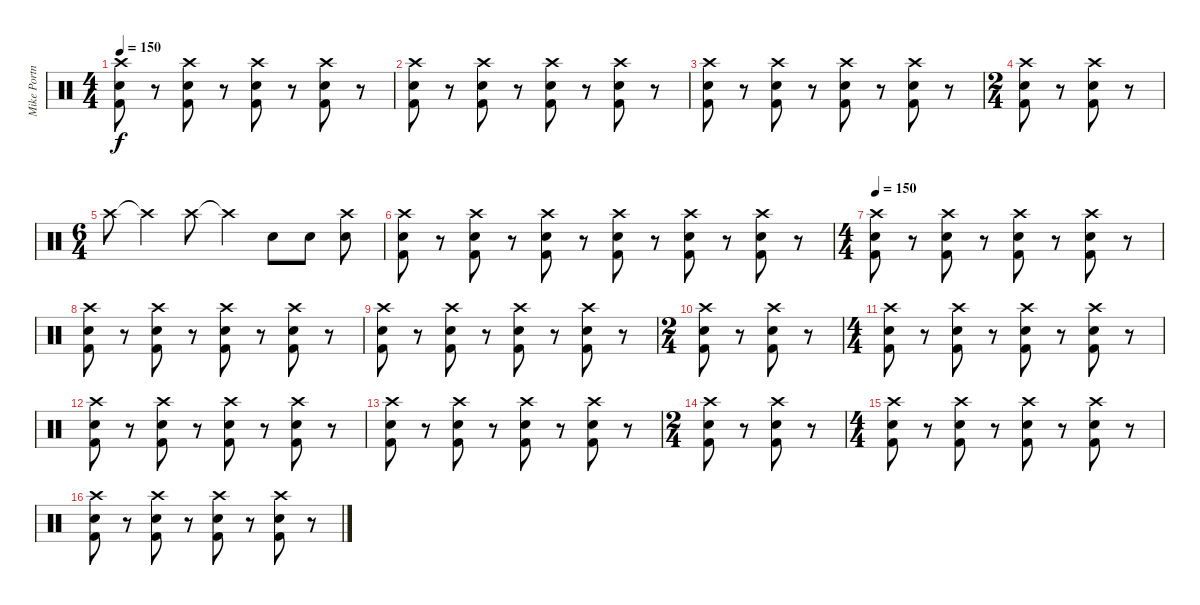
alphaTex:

\track ("Mike Portnoy" "Mike Portn") {instrument percussion}
\staff {score}
\articulation defaults
\ts (4 4)
\tempo 150
\clef neutral
\ks c
("Crash high (hit)" "Electric Snare (hit)" "Kick (hit) 2").8{dy f} r.8 ("Crash high (hit)" "Electric Snare (hit)" "Kick (hit) 2").8 r.8 ("Crash high (hit)" "Electric Snare (hit)" "Kick (hit) 2").8 r.8 ("Crash high (hit)" "Electric Snare (hit)" "Kick (hit) 2").8 r.8 |
("Crash high (hit)" "Electric Snare (hit)" "Kick (hit) 2").8 r.8 ("Crash high (hit)" "Electric Snare (hit)" "Kick (hit) 2").8 r.8 ("Crash high (hit)" "Electric Snare (hit)" "Kick (hit) 2").8 r.8 ("Crash high (hit)" "Electric Snare (hit)" "Kick (hit) 2").8 r.8 |
("Crash high (hit)" "Electric Snare (hit)" "Kick (hit) 2").8 r.8 ("Crash high (hit)" "Electric Snare (hit)" "Kick (hit) 2").8 r.8 ("Crash high (hit)" "Electric Snare (hit)" "Kick (hit) 2").8 r.8 ("Crash high (hit)" "Electric Snare (hit)" "Kick (hit) 2").8 r.8 |
\ts (2 4)
("Crash high (hit)" "Electric Snare (hit)" "Kick (hit) 2").8 r.8 ("Crash high (hit)" "Electric Snare (hit)" "Kick (hit) 2").8 r.8 |
\ts (6 4)
"Crash high (hit)".8 "Crash high (hit)"{t}.4 "Crash high (hit)".8 "Crash high (hit)"{t}.4 "Electric Snare (hit)".8 "Electric Snare (hit)".8 ("Crash high (hit)" "Electric Snare (hit)").8 |
("Crash high (hit)" "Electric Snare (hit)" "Kick (hit) 2").8 r.8 ("Crash high (hit)" "Electric Snare (hit)" "Kick (hit) 2").8 r.8 ("Crash high (hit)" "Electric Snare (hit)" "Kick (hit) 2").8 r.8 ("Crash high (hit)" "Electric Snare (hit)" "Kick (hit) 2").8 r.8 ("Crash high (hit)" "Electric Snare (hit)" "Kick (hit) 2").8 r.8 ("Crash high (hit)" "Electric Snare (hit)" "Kick (hit) 2").8 r.8 |
\ts (4 4)
\tempo 150
("Crash high (hit)" "Electric Snare (hit)" "Kick (hit) 2").8 r.8 ("Crash high (hit)" "Electric Snare (hit)" "Kick (hit) 2").8 r.8 ("Crash high (hit)" "Electric Snare (hit)" "Kick (hit) 2").8 r.8 ("Crash high (hit)" "Electric Snare (hit)" "Kick (hit) 2").8 r.8 |
("Crash high (hit)" "Electric Snare (hit)" "Kick (hit) 2").8 r.8 ("Crash high (hit)" "Electric Snare (hit)" "Kick (hit) 2").8 r.8 ("Crash high (hit)" "Electric Snare (hit)" "Kick (hit) 2").8 r.8 ("Crash high (hit)" "Electric Snare (hit)" "Kick (hit) 2").8 r.8 |
("Crash high (hit)" "Electric Snare (hit)" "Kick (hit) 2").8 r.8 ("Crash high (hit)" "Electric Snare (hit)" "Kick (hit) 2").8 r.8 ("Crash high (hit)" "Electric Snare (hit)" "Kick (hit) 2").8 r.8 ("Crash high (hit)" "Electric Snare (hit)" "Kick (hit) 2").8 r.8 |
\ts (2 4)
("Crash high (hit)" "Electric Snare (hit)" "Kick (hit) 2").8 r.8 ("Crash high (hit)" "Electric Snare (hit)" "Kick (hit) 2").8 r.8 |
\ts (4 4)
("Crash high (hit)" "Electric Snare (hit)" "Kick (hit) 2").8 r.8 ("Crash high (hit)" "Electric Snare (hit)" "Kick (hit) 2").8 r.8 ("Crash high (hit)" "Electric Snare (hit)" "Kick (hit) 2").8 r.8 ("Crash high (hit)" "Electric Snare (hit)" "Kick (hit) 2").8 r.8 |
("Crash high (hit)" "Electric Snare (hit)" "Kick (hit) 2").8 r.8 ("Crash high (hit)" "Electric Snare (hit)" "Kick (hit) 2").8 r.8 ("Crash high (hit)" "Electric Snare (hit)" "Kick (hit) 2").8 r.8 ("Crash high (hit)" "Electric Snare (hit)" "Kick (hit) 2").8 r.8 |
("Crash high (hit)" "Electric Snare (hit)" "Kick (hit) 2").8 r.8 ("Crash high (hit)" "Electric Snare (hit)" "Kick (hit) 2").8 r.8 ("Crash high (hit)" "Electric Snare (hit)" "Kick (hit) 2").8 r.8 ("Crash high (hit)" "Electric Snare (hit)" "Kick (hit) 2").8 r.8 |
\ts (2 4)
("Crash high (hit)" "Electric Snare (hit)" "Kick (hit) 2").8 r.8 ("Crash high (hit)" "Electric Snare (hit)" "Kick (hit) 2").8 r.8 |
\ts (4 4)
("Crash high (hit)" "Electric Snare (hit)" "Kick (hit) 2").8 r.8 ("Crash high (hit)" "Electric Snare (hit)" "Kick (hit) 2").8 r.8 ("Crash high (hit)" "Electric Snare (hit)" "Kick (hit) 2").8 r.8 ("Crash high (hit)" "Electric Snare (hit)" "Kick (hit) 2").8 r.8 |
("Crash high (hit)" "Electric Snare (hit)" "Kick (hit) 2").8 r.8 ("Crash high (hit)" "Electric Snare (hit)" "Kick (hit) 2").8 r.8 ("Crash high (hit)" "Electric Snare (hit)" "Kick (hit) 2").8 r.8 ("Crash high (hit)" "Electric Snare (hit)" "Kick (hit) 2").8 r.8
